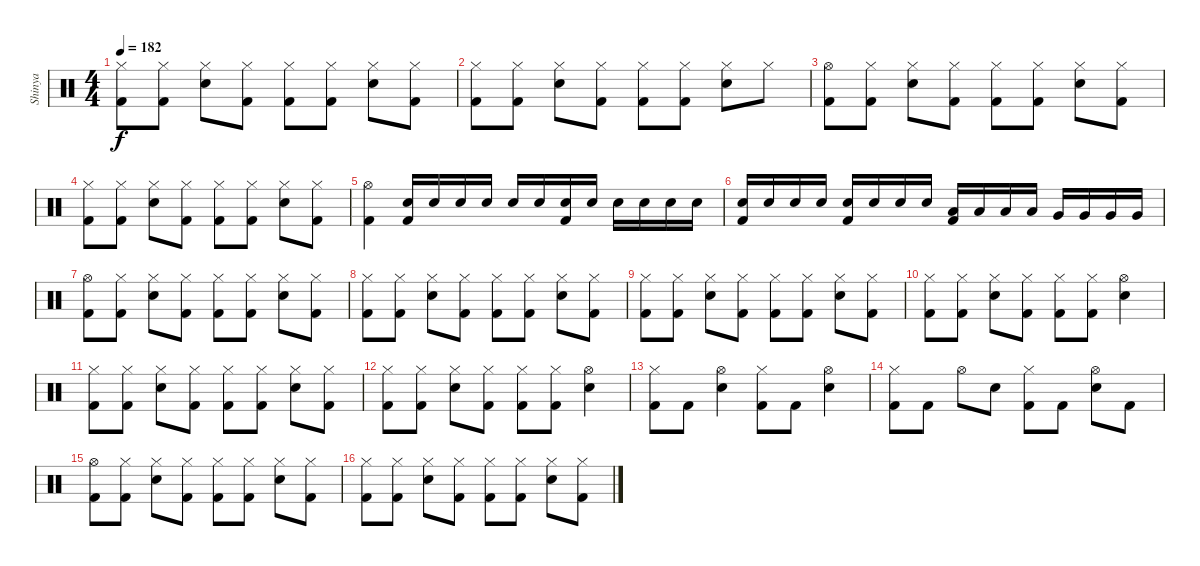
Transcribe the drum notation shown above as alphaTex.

\track ("Shinya" "Shinya") {instrument percussion}
\staff {score}
\articulation defaults
\ts (4 4)
\tempo 182
\clef neutral
\ks c
("Kick (hit) 2" "Hi-Hat (closed)").8{dy f} ("Kick (hit) 2" "Hi-Hat (closed)").8 ("Snare (hit) 2" "Hi-Hat (closed)").8 ("Kick (hit) 2" "Hi-Hat (closed)").8 ("Kick (hit) 2" "Hi-Hat (closed)").8 ("Kick (hit) 2" "Hi-Hat (closed)").8 ("Snare (hit) 2" "Hi-Hat (closed)").8 ("Kick (hit) 2" "Hi-Hat (closed)").8 |
("Kick (hit) 2" "Hi-Hat (closed)").8 ("Kick (hit) 2" "Hi-Hat (closed)").8 ("Snare (hit) 2" "Hi-Hat (closed)").8 ("Kick (hit) 2" "Hi-Hat (closed)").8 ("Kick (hit) 2" "Hi-Hat (closed)").8 ("Kick (hit) 2" "Hi-Hat (closed)").8 ("Snare (hit) 2" "Hi-Hat (closed)").8 "Hi-Hat (closed)".8 |
("Kick (hit) 2" "Hi-Hat (open)").8 ("Kick (hit) 2" "Hi-Hat (closed)").8 ("Snare (hit) 2" "Hi-Hat (closed)").8 ("Kick (hit) 2" "Hi-Hat (closed)").8 ("Kick (hit) 2" "Hi-Hat (closed)").8 ("Kick (hit) 2" "Hi-Hat (closed)").8 ("Snare (hit) 2" "Hi-Hat (closed)").8 ("Kick (hit) 2" "Hi-Hat (closed)").8 |
("Kick (hit) 2" "Hi-Hat (closed)").8 ("Kick (hit) 2" "Hi-Hat (closed)").8 ("Snare (hit) 2" "Hi-Hat (closed)").8 ("Kick (hit) 2" "Hi-Hat (closed)").8 ("Kick (hit) 2" "Hi-Hat (closed)").8 ("Kick (hit) 2" "Hi-Hat (closed)").8 ("Snare (hit) 2" "Hi-Hat (closed)").8 ("Kick (hit) 2" "Hi-Hat (closed)").8 |
("Kick (hit) 2" "Hi-Hat (open)").4 ("Snare (hit) 2" "Kick (hit) 2").16 "Snare (hit) 2".16 "Snare (hit) 2".16 "Snare (hit) 2".16 "Snare (hit) 2".16 "Snare (hit) 2".16 ("Kick (hit) 2" "Snare (hit) 2").16 "Snare (hit) 2".16 "Snare (hit) 2".16 "Snare (hit) 2".16 "Snare (hit) 2".16 "Snare (hit) 2".16 |
("Snare (hit) 2" "Kick (hit) 2").16 "Snare (hit) 2".16 "Snare (hit) 2".16 "Snare (hit) 2".16 ("Snare (hit) 2" "Kick (hit) 2").16 "Snare (hit) 2".16 "Snare (hit) 2".16 "Snare (hit) 2".16 ("Low Tom (hit)" "Kick (hit) 2").16 "Low Tom (hit)".16 "Low Tom (hit)".16 "Low Tom (hit)".16 "Very Low Tom (hit)".16 "Very Low Tom (hit)".16 "Very Low Tom (hit)".16 "Very Low Tom (hit)".16 |
("Kick (hit) 2" "Hi-Hat (open)").8 ("Kick (hit) 2" "Hi-Hat (closed)").8 ("Snare (hit) 2" "Hi-Hat (closed)").8 ("Kick (hit) 2" "Hi-Hat (closed)").8 ("Kick (hit) 2" "Hi-Hat (closed)").8 ("Kick (hit) 2" "Hi-Hat (closed)").8 ("Snare (hit) 2" "Hi-Hat (closed)").8 ("Kick (hit) 2" "Hi-Hat (closed)").8 |
("Kick (hit) 2" "Hi-Hat (closed)").8 ("Kick (hit) 2" "Hi-Hat (closed)").8 ("Snare (hit) 2" "Hi-Hat (closed)").8 ("Kick (hit) 2" "Hi-Hat (closed)").8 ("Kick (hit) 2" "Hi-Hat (closed)").8 ("Kick (hit) 2" "Hi-Hat (closed)").8 ("Snare (hit) 2" "Hi-Hat (closed)").8 ("Kick (hit) 2" "Hi-Hat (closed)").8 |
("Kick (hit) 2" "Hi-Hat (closed)").8 ("Kick (hit) 2" "Hi-Hat (closed)").8 ("Snare (hit) 2" "Hi-Hat (closed)").8 ("Kick (hit) 2" "Hi-Hat (closed)").8 ("Kick (hit) 2" "Hi-Hat (closed)").8 ("Kick (hit) 2" "Hi-Hat (closed)").8 ("Snare (hit) 2" "Hi-Hat (closed)").8 ("Kick (hit) 2" "Hi-Hat (closed)").8 |
("Kick (hit) 2" "Hi-Hat (closed)").8 ("Kick (hit) 2" "Hi-Hat (closed)").8 ("Snare (hit) 2" "Hi-Hat (closed)").8 ("Kick (hit) 2" "Hi-Hat (closed)").8 ("Kick (hit) 2" "Hi-Hat (closed)").8 ("Kick (hit) 2" "Hi-Hat (closed)").8 ("Snare (hit) 2" "Hi-Hat (open)").4 |
("Kick (hit) 2" "Hi-Hat (closed)").8 ("Kick (hit) 2" "Hi-Hat (closed)").8 ("Snare (hit) 2" "Hi-Hat (closed)").8 ("Kick (hit) 2" "Hi-Hat (closed)").8 ("Kick (hit) 2" "Hi-Hat (closed)").8 ("Kick (hit) 2" "Hi-Hat (closed)").8 ("Snare (hit) 2" "Hi-Hat (closed)").8 ("Kick (hit) 2" "Hi-Hat (closed)").8 |
("Kick (hit) 2" "Hi-Hat (closed)").8 ("Kick (hit) 2" "Hi-Hat (closed)").8 ("Snare (hit) 2" "Hi-Hat (closed)").8 ("Kick (hit) 2" "Hi-Hat (closed)").8 ("Kick (hit) 2" "Hi-Hat (closed)").8 ("Kick (hit) 2" "Hi-Hat (closed)").8 ("Snare (hit) 2" "Hi-Hat (open)").4 |
("Kick (hit) 2" "Hi-Hat (closed)").8 "Kick (hit) 2".8 ("Snare (hit) 2" "Hi-Hat (open)").4 ("Kick (hit) 2" "Hi-Hat (closed)").8 "Kick (hit) 2".8 ("Snare (hit) 2" "Hi-Hat (open)").4 |
("Kick (hit) 2" "Hi-Hat (closed)").8 "Kick (hit) 2".8 "Hi-Hat (open)".8 "Snare (hit) 2".8 ("Kick (hit) 2" "Hi-Hat (closed)").8 "Kick (hit) 2".8 ("Snare (hit) 2" "Hi-Hat (open)").8 "Kick (hit) 2".8 |
("Kick (hit) 2" "Hi-Hat (open)").8 ("Kick (hit) 2" "Hi-Hat (closed)").8 ("Snare (hit) 2" "Hi-Hat (closed)").8 ("Kick (hit) 2" "Hi-Hat (closed)").8 ("Kick (hit) 2" "Hi-Hat (closed)").8 ("Kick (hit) 2" "Hi-Hat (closed)").8 ("Snare (hit) 2" "Hi-Hat (closed)").8 ("Kick (hit) 2" "Hi-Hat (closed)").8 |
("Kick (hit) 2" "Hi-Hat (closed)").8 ("Kick (hit) 2" "Hi-Hat (closed)").8 ("Snare (hit) 2" "Hi-Hat (closed)").8 ("Kick (hit) 2" "Hi-Hat (closed)").8 ("Kick (hit) 2" "Hi-Hat (closed)").8 ("Kick (hit) 2" "Hi-Hat (closed)").8 ("Snare (hit) 2" "Hi-Hat (closed)").8 ("Kick (hit) 2" "Hi-Hat (closed)").8
